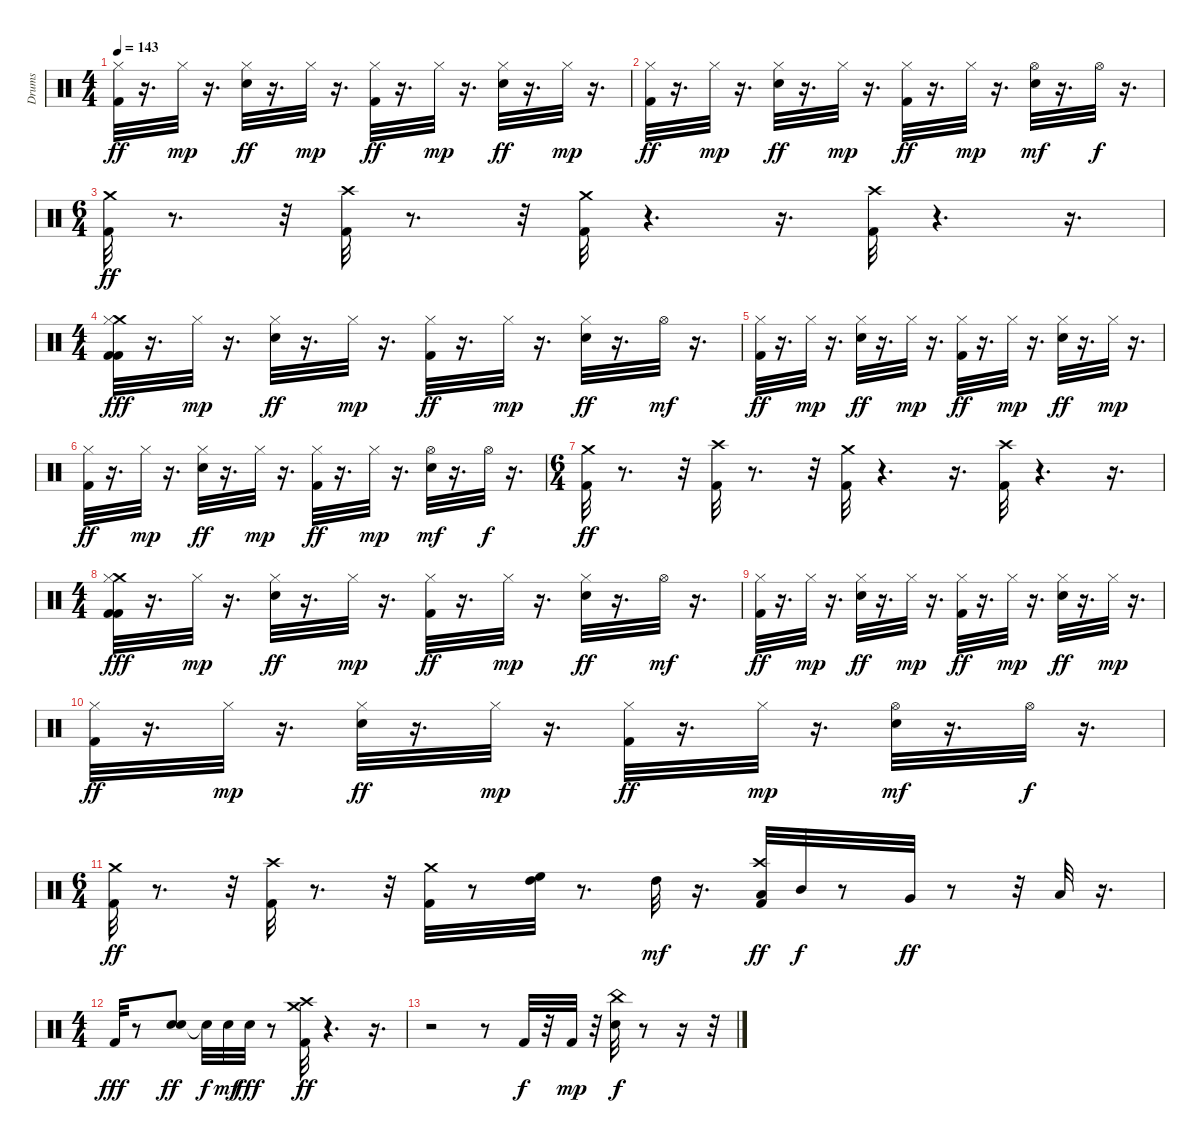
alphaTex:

\track ("Drums" "Drums") {instrument percussion}
\staff {score}
\articulation defaults
\ts (4 4)
\tempo 143
\clef neutral
\ks c
("Kick (hit) 2" "Hi-Hat (closed)").32{dy ff} r.16{d} "Hi-Hat (closed)".32{dy mp} r.16{d} ("Snare (hit) 2" "Hi-Hat (closed)").32{dy ff} r.16{d} "Hi-Hat (closed)".32{dy mp} r.16{d} ("Kick (hit) 2" "Hi-Hat (closed)").32{dy ff} r.16{d} "Hi-Hat (closed)".32{dy mp} r.16{d} ("Snare (hit) 2" "Hi-Hat (closed)").32{dy ff} r.16{d} "Hi-Hat (closed)".32{dy mp} r.16{d} |
("Kick (hit) 2" "Hi-Hat (closed)").32{dy ff} r.16{d} "Hi-Hat (closed)".32{dy mp} r.16{d} ("Snare (hit) 2" "Hi-Hat (closed)").32{dy ff} r.16{d} "Hi-Hat (closed)".32{dy mp} r.16{d} ("Kick (hit) 2" "Hi-Hat (closed)").32{dy ff} r.16{d} "Hi-Hat (closed)".32{dy mp} r.16{d} ("Snare (hit) 2" "Hi-Hat (open)").32{dy mf} r.16{d} "Hi-Hat (open)".32{dy f} r.16{d} |
\ts (6 4)
("Crash medium (hit)" "Kick (hit) 2").32{dy ff} r.8{d} r.32 ("Kick (hit) 2" "Crash high (hit)").32 r.8{d} r.32 ("Kick (hit) 2" "Crash medium (hit)").32 r.4{d} r.16{d} ("Kick (hit) 2" "Crash high (hit)").32 r.4{d} r.16{d} |
\ts (4 4)
("Kick (hit) 2" "Crash medium (hit)" "Kick (hit) 2" "Hi-Hat (closed)").32{dy fff} r.16{d} "Hi-Hat (closed)".32{dy mp} r.16{d} ("Snare (hit) 2" "Hi-Hat (closed)").32{dy ff} r.16{d} "Hi-Hat (closed)".32{dy mp} r.16{d} ("Kick (hit) 2" "Hi-Hat (closed)").32{dy ff} r.16{d} "Hi-Hat (closed)".32{dy mp} r.16{d} ("Snare (hit) 2" "Hi-Hat (closed)").32{dy ff} r.16{d} "Hi-Hat (open)".32{dy mf} r.16{d} |
("Kick (hit) 2" "Hi-Hat (closed)").32{dy ff} r.16{d} "Hi-Hat (closed)".32{dy mp} r.16{d} ("Snare (hit) 2" "Hi-Hat (closed)").32{dy ff} r.16{d} "Hi-Hat (closed)".32{dy mp} r.16{d} ("Kick (hit) 2" "Hi-Hat (closed)").32{dy ff} r.16{d} "Hi-Hat (closed)".32{dy mp} r.16{d} ("Snare (hit) 2" "Hi-Hat (closed)").32{dy ff} r.16{d} "Hi-Hat (closed)".32{dy mp} r.16{d} |
("Kick (hit) 2" "Hi-Hat (closed)").32{dy ff} r.16{d} "Hi-Hat (closed)".32{dy mp} r.16{d} ("Snare (hit) 2" "Hi-Hat (closed)").32{dy ff} r.16{d} "Hi-Hat (closed)".32{dy mp} r.16{d} ("Kick (hit) 2" "Hi-Hat (closed)").32{dy ff} r.16{d} "Hi-Hat (closed)".32{dy mp} r.16{d} ("Snare (hit) 2" "Hi-Hat (open)").32{dy mf} r.16{d} "Hi-Hat (open)".32{dy f} r.16{d} |
\ts (6 4)
("Crash medium (hit)" "Kick (hit) 2").32{dy ff} r.8{d} r.32 ("Kick (hit) 2" "Crash high (hit)").32 r.8{d} r.32 ("Kick (hit) 2" "Crash medium (hit)").32 r.4{d} r.16{d} ("Kick (hit) 2" "Crash high (hit)").32 r.4{d} r.16{d} |
\ts (4 4)
("Kick (hit) 2" "Crash medium (hit)" "Kick (hit) 2" "Hi-Hat (closed)").32{dy fff} r.16{d} "Hi-Hat (closed)".32{dy mp} r.16{d} ("Snare (hit) 2" "Hi-Hat (closed)").32{dy ff} r.16{d} "Hi-Hat (closed)".32{dy mp} r.16{d} ("Kick (hit) 2" "Hi-Hat (closed)").32{dy ff} r.16{d} "Hi-Hat (closed)".32{dy mp} r.16{d} ("Snare (hit) 2" "Hi-Hat (closed)").32{dy ff} r.16{d} "Hi-Hat (open)".32{dy mf} r.16{d} |
("Kick (hit) 2" "Hi-Hat (closed)").32{dy ff} r.16{d} "Hi-Hat (closed)".32{dy mp} r.16{d} ("Snare (hit) 2" "Hi-Hat (closed)").32{dy ff} r.16{d} "Hi-Hat (closed)".32{dy mp} r.16{d} ("Kick (hit) 2" "Hi-Hat (closed)").32{dy ff} r.16{d} "Hi-Hat (closed)".32{dy mp} r.16{d} ("Snare (hit) 2" "Hi-Hat (closed)").32{dy ff} r.16{d} "Hi-Hat (closed)".32{dy mp} r.16{d} |
("Kick (hit) 2" "Hi-Hat (closed)").32{dy ff} r.16{d} "Hi-Hat (closed)".32{dy mp} r.16{d} ("Snare (hit) 2" "Hi-Hat (closed)").32{dy ff} r.16{d} "Hi-Hat (closed)".32{dy mp} r.16{d} ("Kick (hit) 2" "Hi-Hat (closed)").32{dy ff} r.16{d} "Hi-Hat (closed)".32{dy mp} r.16{d} ("Snare (hit) 2" "Hi-Hat (open)").32{dy mf} r.16{d} "Hi-Hat (open)".32{dy f} r.16{d} |
\ts (6 4)
("Crash medium (hit)" "Kick (hit) 2").32{dy ff} r.8{d} r.32 ("Kick (hit) 2" "Crash high (hit)").32 r.8{d} r.32 ("Kick (hit) 2" "Crash medium (hit)").32 r.8 ("High Tom (hit)" "High Floor Tom (hit)").32 r.8{d} "High Tom (hit)".32{dy mf} r.16{d} ("Kick (hit) 2" "Crash high (hit)" "Low Tom (hit)").32{dy ff} "Mid Tom (hit)".32{dy f} r.8 "Very Low Tom (hit)".32{dy ff} r.8 r.32 "Low Floor Tom (hit)".32 r.16{d} |
\ts (4 4)
"Kick (hit) 2".32{dy fff} r.8 ("Snare (hit) 2" "Snare (hit) 2").8{dy ff} "Snare (hit)"{t}.32{dy f} "Snare (hit) 2".32{dy mf} "Snare (hit) 2".32{dy fff} r.8 ("Crash high (hit)" "Kick (hit) 2" "Crash medium (hit)").32{dy ff} r.4{d} r.16{d} |
r.2 r.8 "Kick (hit) 2".32{dy f} r.32 "Kick (hit) 2".32{dy mp} r.32 ("China (hit)" "Snare (hit) 2").32{dy f} r.8 r.16 r.32
